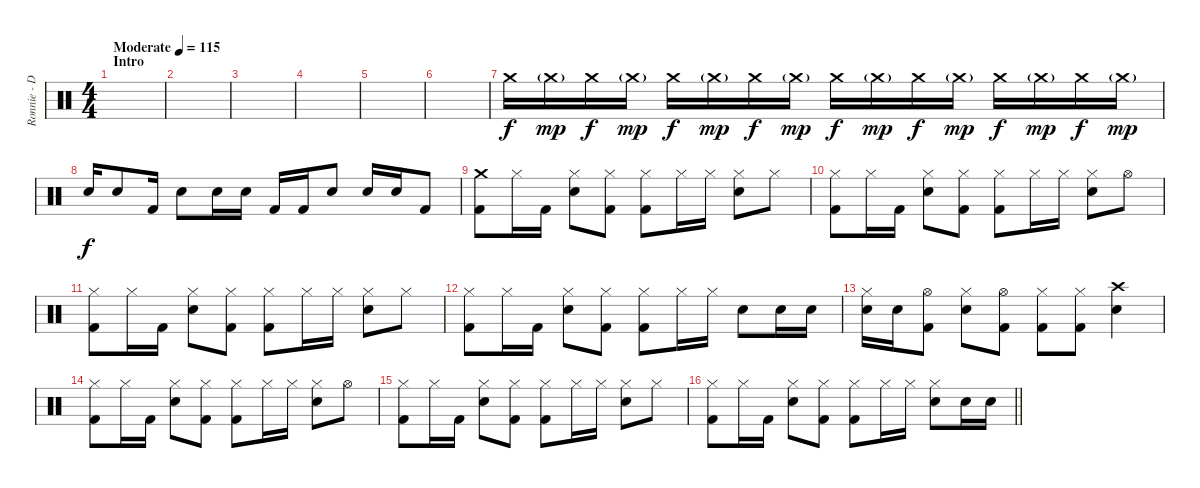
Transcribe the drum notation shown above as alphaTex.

\track ("Ronnie - Drums" "Ronnie - D") {instrument percussion}
\staff {score}
\articulation defaults
\ts (4 4)
\section ("" "Intro")
\tempo (115 "Moderate")
\clef neutral
\ks c
|
|
|
|
|
|
"Crash medium (hit)".16{volume 13} "Crash medium (hit)"{g}.16{dy mp} "Crash medium (hit)".16{dy f} "Crash medium (hit)"{g}.16{dy mp} "Crash medium (hit)".16{dy f} "Crash medium (hit)"{g}.16{dy mp} "Crash medium (hit)".16{dy f} "Crash medium (hit)"{g}.16{dy mp} "Crash medium (hit)".16{dy f} "Crash medium (hit)"{g}.16{dy mp} "Crash medium (hit)".16{dy f} "Crash medium (hit)"{g}.16{dy mp} "Crash medium (hit)".16{dy f} "Crash medium (hit)"{g}.16{dy mp} "Crash medium (hit)".16{dy f} "Crash medium (hit)"{g}.16{dy mp} |
"Electric Snare (hit)".16{dy f} "Electric Snare (hit)".8 "Kick (hit) 2".16 "Electric Snare (hit)".8 "Electric Snare (hit)".16 "Electric Snare (hit)".16 "Kick (hit) 2".16 "Kick (hit) 2".16 "Electric Snare (hit)".8 "Electric Snare (hit)".16 "Electric Snare (hit)".16 "Kick (hit) 2".8 |
("Crash medium (hit)" "Kick (hit) 2").8 "Hi-Hat (closed)".16 "Kick (hit) 2".16 ("Hi-Hat (closed)" "Electric Snare (hit)").8 ("Hi-Hat (closed)" "Kick (hit) 2").8 ("Hi-Hat (closed)" "Kick (hit) 2").8 "Hi-Hat (closed)".16 "Hi-Hat (closed)".16 ("Hi-Hat (closed)" "Electric Snare (hit)").8 "Hi-Hat (closed)".8 |
("Hi-Hat (closed)" "Kick (hit) 2").8 "Hi-Hat (closed)".16 "Kick (hit) 2".16 ("Hi-Hat (closed)" "Electric Snare (hit)").8 ("Hi-Hat (closed)" "Kick (hit) 2").8 ("Hi-Hat (closed)" "Kick (hit) 2").8 "Hi-Hat (closed)".16 "Hi-Hat (closed)".16 ("Hi-Hat (closed)" "Electric Snare (hit)").8 "Hi-Hat (open)".8 |
("Hi-Hat (closed)" "Kick (hit) 2").8 "Hi-Hat (closed)".16 "Kick (hit) 2".16 ("Hi-Hat (closed)" "Electric Snare (hit)").8 ("Hi-Hat (closed)" "Kick (hit) 2").8 ("Hi-Hat (closed)" "Kick (hit) 2").8 "Hi-Hat (closed)".16 "Hi-Hat (closed)".16 ("Hi-Hat (closed)" "Electric Snare (hit)").8 "Hi-Hat (closed)".8 |
("Hi-Hat (closed)" "Kick (hit) 2").8 "Hi-Hat (closed)".16 "Kick (hit) 2".16 ("Hi-Hat (closed)" "Electric Snare (hit)").8 ("Hi-Hat (closed)" "Kick (hit) 2").8 ("Hi-Hat (closed)" "Kick (hit) 2").8 "Hi-Hat (closed)".16 "Hi-Hat (closed)".16 "Electric Snare (hit)".8 "Electric Snare (hit)".16 "Electric Snare (hit)".16 |
("Hi-Hat (closed)" "Electric Snare (hit)").16 "Electric Snare (hit)".16 ("Hi-Hat (open)" "Kick (hit) 2").8 ("Hi-Hat (closed)" "Electric Snare (hit)").8 ("Hi-Hat (open)" "Kick (hit) 2").8 ("Hi-Hat (closed)" "Kick (hit) 2").8 ("Hi-Hat (closed)" "Kick (hit) 2").8 ("Crash high (hit)" "Electric Snare (hit)").4 |
("Hi-Hat (closed)" "Kick (hit) 2").8 "Hi-Hat (closed)".16 "Kick (hit) 2".16 ("Hi-Hat (closed)" "Electric Snare (hit)").8 ("Hi-Hat (closed)" "Kick (hit) 2").8 ("Hi-Hat (closed)" "Kick (hit) 2").8 "Hi-Hat (closed)".16 "Hi-Hat (closed)".16 ("Hi-Hat (closed)" "Electric Snare (hit)").8 "Hi-Hat (open)".8 |
("Hi-Hat (closed)" "Kick (hit) 2").8 "Hi-Hat (closed)".16 "Kick (hit) 2".16 ("Hi-Hat (closed)" "Electric Snare (hit)").8 ("Hi-Hat (closed)" "Kick (hit) 2").8 ("Hi-Hat (closed)" "Kick (hit) 2").8 "Hi-Hat (closed)".16 "Hi-Hat (closed)".16 ("Hi-Hat (closed)" "Electric Snare (hit)").8 "Hi-Hat (closed)".8 |
\barLineRight lightlight
("Hi-Hat (closed)" "Kick (hit) 2").8 "Hi-Hat (closed)".16 "Kick (hit) 2".16 ("Hi-Hat (closed)" "Electric Snare (hit)").8 ("Hi-Hat (closed)" "Kick (hit) 2").8 ("Hi-Hat (closed)" "Kick (hit) 2").8 "Hi-Hat (closed)".16 "Hi-Hat (closed)".16 ("Hi-Hat (closed)" "Electric Snare (hit)").8 "Electric Snare (hit)".16 "Electric Snare (hit)".16
